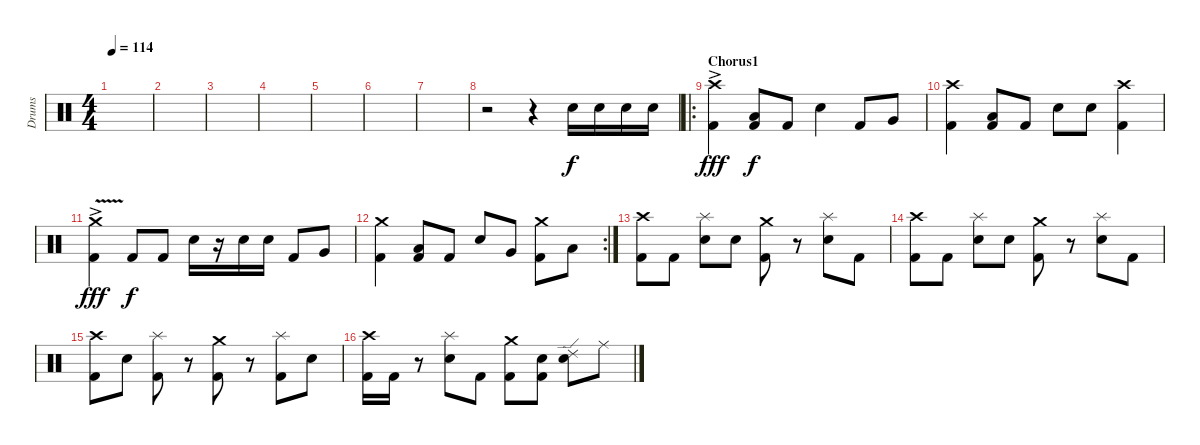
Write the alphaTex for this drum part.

\track ("Drums" "Drums") {instrument percussion}
\staff {score}
\articulation defaults
\ts (4 4)
\tempo 114
\clef neutral
\ks c
|
|
|
|
|
|
|
r.2 r.4 "Snare (hit) 2".16 "Snare (hit) 2".16 "Snare (hit) 2".16 "Snare (hit) 2".16 |
\ro
\section ("" "Chorus1")
("Crash high (hit)"{ac} "Kick (hit) 2").4{dy fff} ("Low Floor Tom (hit)" "Kick (hit) 2").8{dy f} "Kick (hit) 2".8 "Snare (hit) 2".4 "Kick (hit) 2".8 "Very Low Tom (hit)".8 |
("Crash high (hit)" "Kick (hit) 2").4 ("Low Floor Tom (hit)" "Kick (hit) 2").8 "Kick (hit) 2".8 "Snare (hit) 2".8 "Snare (hit) 2".8 ("Crash high (hit)" "Kick (hit) 2").4 |
("Crash medium (hit)"{v ac} "Kick (hit) 2").4{dy fff} "Kick (hit) 2".8{dy f} "Kick (hit) 2".8 "Snare (hit) 2".16 r.16 "Snare (hit) 2".16 "Snare (hit) 2".16 "Kick (hit) 2".8 "Very Low Tom (hit)".8 |
\rc 2
("Crash medium (hit)" "Kick (hit) 2").4 ("Low Floor Tom (hit)" "Kick (hit) 2").8 "Kick (hit) 2".8 "Snare (hit) 2".8 "Very Low Tom (hit)".8 ("Crash medium (hit)" "Kick (hit) 2").8 "Low Floor Tom (hit)".8 |
("Crash high (hit)" "Kick (hit) 2").8 "Kick (hit) 2".8 ("Splash (hit)" "Snare (hit) 2").8 "Snare (hit) 2".8 ("Crash medium (hit)" "Kick (hit) 2").8 r.8 ("Splash (hit)" "Snare (hit) 2").8 "Kick (hit) 2".8 |
("Crash high (hit)" "Kick (hit) 2").8 "Kick (hit) 2".8 ("Splash (hit)" "Snare (hit) 2").8 "Snare (hit) 2".8 ("Crash medium (hit)" "Kick (hit) 2").8 r.8 ("Splash (hit)" "Snare (hit) 2").8 "Kick (hit) 2".8 |
("Crash high (hit)" "Kick (hit) 2").8 "Snare (hit) 2".8 ("Splash (hit)" "Kick (hit) 2").8 r.8 ("Crash medium (hit)" "Kick (hit) 2").8 r.8 ("Splash (hit)" "Kick (hit) 2").8 "Snare (hit) 2".8 |
("Crash high (hit)" "Kick (hit) 2").16 "Kick (hit) 2".16 r.8 ("Splash (hit)" "Snare (hit) 2").8 "Kick (hit) 2".8 ("Crash medium (hit)" "Kick (hit) 2").8 ("Snare (hit) 2" "Kick (hit) 2").8 ("Ride (edge) 2" "Snare (hit) 2").8 "Ride (middle)".8
